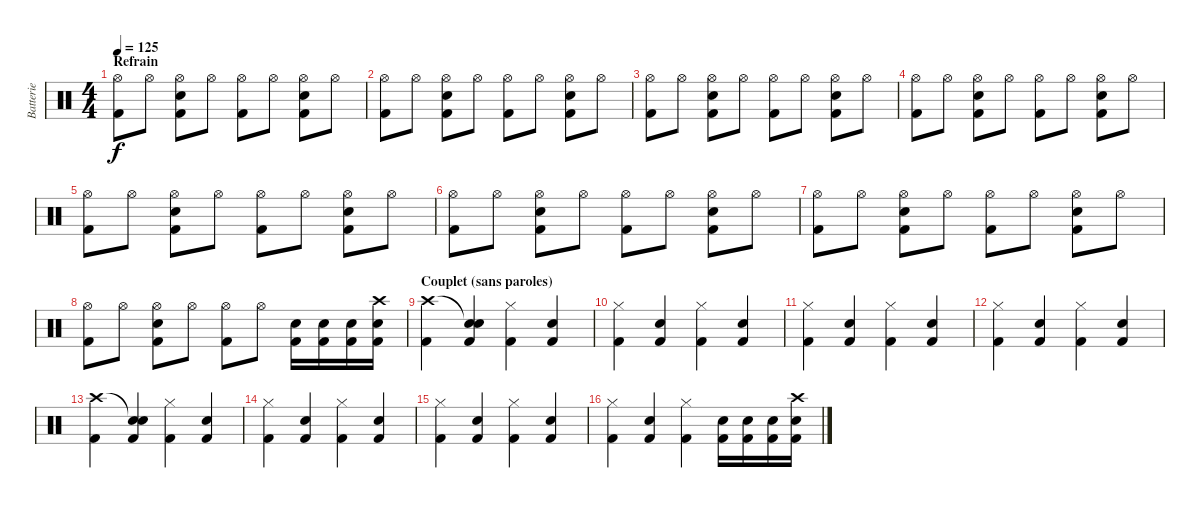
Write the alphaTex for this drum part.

\track ("Batterie" "Batterie") {instrument percussion}
\staff {score}
\articulation defaults
\ts (4 4)
\section ("" "Refrain")
\tempo 125
\clef neutral
\ks c
("Hi-Hat (open)" "Kick (hit) 2").8{dy f} "Hi-Hat (open)".8 ("Hi-Hat (open)" "Snare (hit) 2" "Kick (hit) 2").8 "Hi-Hat (open)".8 ("Hi-Hat (open)" "Kick (hit) 2").8 "Hi-Hat (open)".8 ("Hi-Hat (open)" "Snare (hit) 2" "Kick (hit) 2").8 "Hi-Hat (open)".8 |
("Hi-Hat (open)" "Kick (hit) 2").8 "Hi-Hat (open)".8 ("Hi-Hat (open)" "Snare (hit) 2" "Kick (hit) 2").8 "Hi-Hat (open)".8 ("Hi-Hat (open)" "Kick (hit) 2").8 "Hi-Hat (open)".8 ("Hi-Hat (open)" "Snare (hit) 2" "Kick (hit) 2").8 "Hi-Hat (open)".8 |
("Hi-Hat (open)" "Kick (hit) 2").8 "Hi-Hat (open)".8 ("Hi-Hat (open)" "Snare (hit) 2" "Kick (hit) 2").8 "Hi-Hat (open)".8 ("Hi-Hat (open)" "Kick (hit) 2").8 "Hi-Hat (open)".8 ("Hi-Hat (open)" "Snare (hit) 2" "Kick (hit) 2").8 "Hi-Hat (open)".8 |
("Hi-Hat (open)" "Kick (hit) 2").8 "Hi-Hat (open)".8 ("Hi-Hat (open)" "Snare (hit) 2" "Kick (hit) 2").8 "Hi-Hat (open)".8 ("Hi-Hat (open)" "Kick (hit) 2").8 "Hi-Hat (open)".8 ("Hi-Hat (open)" "Snare (hit) 2" "Kick (hit) 2").8 "Hi-Hat (open)".8 |
("Hi-Hat (open)" "Kick (hit) 2").8 "Hi-Hat (open)".8 ("Hi-Hat (open)" "Snare (hit) 2" "Kick (hit) 2").8 "Hi-Hat (open)".8 ("Hi-Hat (open)" "Kick (hit) 2").8 "Hi-Hat (open)".8 ("Hi-Hat (open)" "Snare (hit) 2" "Kick (hit) 2").8 "Hi-Hat (open)".8 |
("Hi-Hat (open)" "Kick (hit) 2").8 "Hi-Hat (open)".8 ("Hi-Hat (open)" "Snare (hit) 2" "Kick (hit) 2").8 "Hi-Hat (open)".8 ("Hi-Hat (open)" "Kick (hit) 2").8 "Hi-Hat (open)".8 ("Hi-Hat (open)" "Snare (hit) 2" "Kick (hit) 2").8 "Hi-Hat (open)".8 |
("Hi-Hat (open)" "Kick (hit) 2").8 "Hi-Hat (open)".8 ("Hi-Hat (open)" "Snare (hit) 2" "Kick (hit) 2").8 "Hi-Hat (open)".8 ("Hi-Hat (open)" "Kick (hit) 2").8 "Hi-Hat (open)".8 ("Hi-Hat (open)" "Snare (hit) 2" "Kick (hit) 2").8 "Hi-Hat (open)".8 |
("Hi-Hat (open)" "Kick (hit) 2").8 "Hi-Hat (open)".8 ("Hi-Hat (open)" "Snare (hit) 2" "Kick (hit) 2").8 "Hi-Hat (open)".8 ("Hi-Hat (open)" "Kick (hit) 2").8 "Hi-Hat (open)".8 ("Snare (hit) 2" "Kick (hit) 2").16 ("Snare (hit) 2" "Kick (hit) 2").16 ("Snare (hit) 2" "Kick (hit) 2").16 ("Crash high (hit)" "Snare (hit) 2" "Kick (hit) 2").16 |
\section ("" "Couplet (sans paroles)")
("Crash high (hit)" "Kick (hit) 2").4 ("Snare (hit)"{t} "Snare (hit) 2" "Kick (hit) 2").4 ("Hi-Hat (closed)" "Kick (hit) 2").4 ("Snare (hit) 2" "Kick (hit) 2").4 |
("Hi-Hat (closed)" "Kick (hit) 2").4 ("Snare (hit) 2" "Kick (hit) 2").4 ("Hi-Hat (closed)" "Kick (hit) 2").4 ("Snare (hit) 2" "Kick (hit) 2").4 |
("Hi-Hat (closed)" "Kick (hit) 2").4 ("Snare (hit) 2" "Kick (hit) 2").4 ("Hi-Hat (closed)" "Kick (hit) 2").4 ("Snare (hit) 2" "Kick (hit) 2").4 |
("Hi-Hat (closed)" "Kick (hit) 2").4 ("Snare (hit) 2" "Kick (hit) 2").4 ("Hi-Hat (closed)" "Kick (hit) 2").4 ("Snare (hit) 2" "Kick (hit) 2").4 |
("Crash high (hit)" "Kick (hit) 2").4 ("Snare (hit)"{t} "Snare (hit) 2" "Kick (hit) 2").4 ("Hi-Hat (closed)" "Kick (hit) 2").4 ("Snare (hit) 2" "Kick (hit) 2").4 |
("Hi-Hat (closed)" "Kick (hit) 2").4 ("Snare (hit) 2" "Kick (hit) 2").4 ("Hi-Hat (closed)" "Kick (hit) 2").4 ("Snare (hit) 2" "Kick (hit) 2").4 |
("Hi-Hat (closed)" "Kick (hit) 2").4 ("Snare (hit) 2" "Kick (hit) 2").4 ("Hi-Hat (closed)" "Kick (hit) 2").4 ("Snare (hit) 2" "Kick (hit) 2").4 |
("Hi-Hat (closed)" "Kick (hit) 2").4 ("Snare (hit) 2" "Kick (hit) 2").4 ("Hi-Hat (closed)" "Kick (hit) 2").4 ("Snare (hit) 2" "Kick (hit) 2").16 ("Snare (hit) 2" "Kick (hit) 2").16 ("Snare (hit) 2" "Kick (hit) 2").16 ("Crash high (hit)" "Snare (hit) 2" "Kick (hit) 2").16
